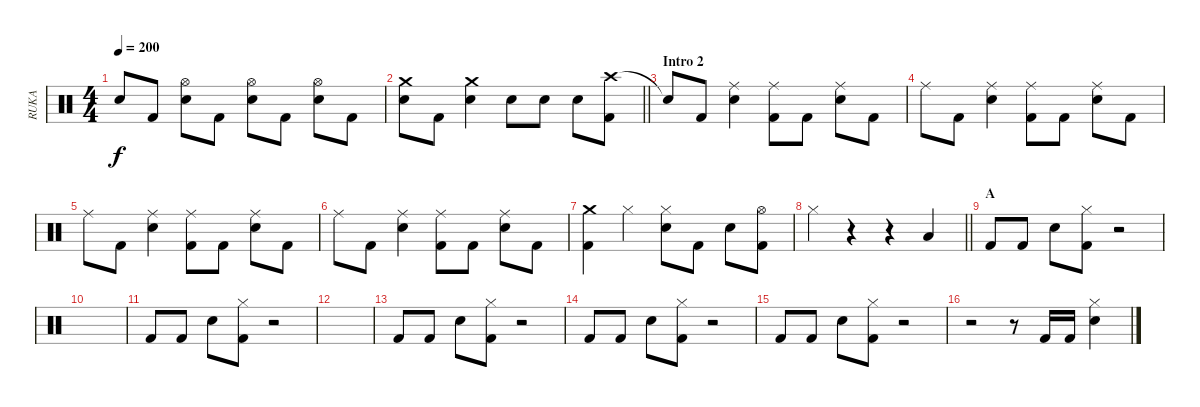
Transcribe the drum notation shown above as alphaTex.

\track ("RUKA" "RUKA") {instrument percussion}
\staff {score}
\articulation defaults
\ts (4 4)
\tempo 200
\clef neutral
\ks c "Snare (hit)"{t}.8{dy f} "Kick (hit) 2".8
("Hi-Hat (open)" "Snare (hit) 2").8 "Kick (hit) 2".8 ("Hi-Hat (open)" "Snare (hit) 2").8 "Kick (hit) 2".8 ("Hi-Hat (open)" "Snare (hit) 2").8 "Kick (hit) 2".8 |
\barLineRight lightlight
("Crash medium (hit)" "Snare (hit) 2").8 "Kick (hit) 2".8 ("Crash medium (hit)" "Snare (hit) 2").4 "Snare (hit) 2".8 "Snare (hit) 2".8 "Snare (hit) 2".8 ("Crash high (hit)" "Kick (hit) 2").8 |
\section ("" "Intro 2")
"Snare (hit)"{t}.8 "Kick (hit) 2".8 ("Ride (middle)" "Snare (hit) 2").4 ("Ride (middle)" "Kick (hit) 2").8 "Kick (hit) 2".8 ("Ride (middle)" "Snare (hit) 2").8 "Kick (hit) 2".8 |
"Ride (middle)".8 "Kick (hit) 2".8 ("Ride (middle)" "Snare (hit) 2").4 ("Ride (middle)" "Kick (hit) 2").8 "Kick (hit) 2".8 ("Ride (middle)" "Snare (hit) 2").8 "Kick (hit) 2".8 |
"Ride (middle)".8 "Kick (hit) 2".8 ("Ride (middle)" "Snare (hit) 2").4 ("Ride (middle)" "Kick (hit) 2").8 "Kick (hit) 2".8 ("Ride (middle)" "Snare (hit) 2").8 "Kick (hit) 2".8 |
"Ride (middle)".8 "Kick (hit) 2".8 ("Ride (middle)" "Snare (hit) 2").4 ("Ride (middle)" "Kick (hit) 2").8 "Kick (hit) 2".8 ("Ride (middle)" "Snare (hit) 2").8 "Kick (hit) 2".8 |
("Crash medium (hit)" "Kick (hit) 2").4 "Hi-Hat (closed)".4 ("Hi-Hat (closed)" "Snare (hit) 2").8 "Kick (hit) 2".8 "Snare (hit) 2".8 ("Hi-Hat (open)" "Kick (hit) 2").8 |
\barLineRight lightlight "Hi-Hat (closed)".4
r.4 r.4 "Low Tom (hit)".4 |
\section ("" "A")
"Kick (hit) 2".8 "Kick (hit) 2".8 "Snare (hit) 2".8 ("Hi-Hat (closed)" "Kick (hit) 2").8 r.2 |
|
"Kick (hit) 2".8 "Kick (hit) 2".8 "Snare (hit) 2".8 ("Hi-Hat (closed)" "Kick (hit) 2").8 r.2 |
|
"Kick (hit) 2".8 "Kick (hit) 2".8 "Snare (hit) 2".8 ("Hi-Hat (closed)" "Kick (hit) 2").8 r.2 |
"Kick (hit) 2".8 "Kick (hit) 2".8 "Snare (hit) 2".8 ("Hi-Hat (closed)" "Kick (hit) 2").8 r.2 |
"Kick (hit) 2".8 "Kick (hit) 2".8 "Snare (hit) 2".8 ("Hi-Hat (closed)" "Kick (hit) 2").8 r.2 |
r.2 r.8 "Kick (hit) 2".16 "Kick (hit) 2".16 ("Hi-Hat (closed)" "Snare (hit) 2").4
